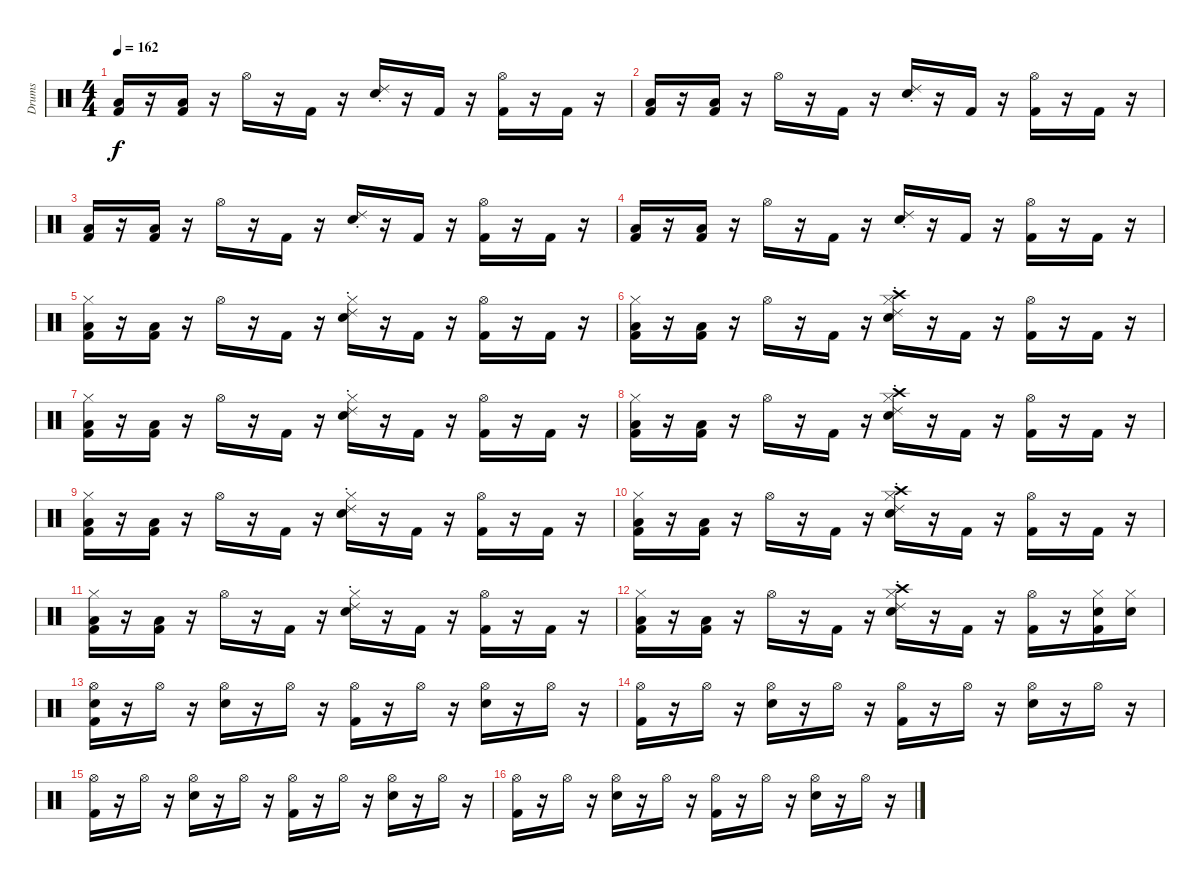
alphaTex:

\track ("Drums" "Drums") {instrument percussion}
\staff {score}
\articulation defaults
\ts (4 4)
\tempo 162
\clef neutral
\ks c
("Kick (hit) 2" "Low Floor Tom (hit)").16{dy f} r.16 ("Kick (hit) 2" "Low Floor Tom (hit)").16 r.16 "Hi-Hat (open)".16 r.16 "Kick (hit) 2".16 r.16 ("Electric Snare (hit)" "Ride (choke) 2").16 r.16 "Kick (hit) 2".16 r.16 ("Kick (hit) 2" "Hi-Hat (open)").16 r.16 "Kick (hit) 2".16 r.16 |
("Kick (hit) 2" "Low Floor Tom (hit)").16 r.16 ("Kick (hit) 2" "Low Floor Tom (hit)").16 r.16 "Hi-Hat (open)".16 r.16 "Kick (hit) 2".16 r.16 ("Electric Snare (hit)" "Ride (choke) 2").16 r.16 "Kick (hit) 2".16 r.16 ("Kick (hit) 2" "Hi-Hat (open)").16 r.16 "Kick (hit) 2".16 r.16 |
("Kick (hit) 2" "Low Floor Tom (hit)").16 r.16 ("Kick (hit) 2" "Low Floor Tom (hit)").16 r.16 "Hi-Hat (open)".16 r.16 "Kick (hit) 2".16 r.16 ("Electric Snare (hit)" "Ride (choke) 2").16 r.16 "Kick (hit) 2".16 r.16 ("Kick (hit) 2" "Hi-Hat (open)").16 r.16 "Kick (hit) 2".16 r.16 |
("Kick (hit) 2" "Low Floor Tom (hit)").16 r.16 ("Kick (hit) 2" "Low Floor Tom (hit)").16 r.16 "Hi-Hat (open)".16 r.16 "Kick (hit) 2".16 r.16 ("Electric Snare (hit)" "Ride (choke) 2").16 r.16 "Kick (hit) 2".16 r.16 ("Kick (hit) 2" "Hi-Hat (open)").16 r.16 "Kick (hit) 2".16 r.16 |
("Kick (hit) 2" "Low Floor Tom (hit)" "Hi-Hat (closed)").16 r.16 ("Kick (hit) 2" "Low Floor Tom (hit)").16 r.16 "Hi-Hat (open)".16 r.16 "Kick (hit) 2".16 r.16 ("Electric Snare (hit)" "Ride (choke) 2" "Hi-Hat (closed)").16 r.16 "Kick (hit) 2".16 r.16 ("Kick (hit) 2" "Hi-Hat (open)").16 r.16 "Kick (hit) 2".16 r.16 |
("Kick (hit) 2" "Low Floor Tom (hit)" "Hi-Hat (closed)").16 r.16 ("Kick (hit) 2" "Low Floor Tom (hit)").16 r.16 "Hi-Hat (open)".16 r.16 "Kick (hit) 2".16 r.16 ("Electric Snare (hit)" "Ride (choke) 2" "Hi-Hat (closed)" "Crash high (hit)").16 r.16 "Kick (hit) 2".16 r.16 ("Kick (hit) 2" "Hi-Hat (open)").16 r.16 "Kick (hit) 2".16 r.16 |
("Kick (hit) 2" "Low Floor Tom (hit)" "Hi-Hat (closed)").16 r.16 ("Kick (hit) 2" "Low Floor Tom (hit)").16 r.16 "Hi-Hat (open)".16 r.16 "Kick (hit) 2".16 r.16 ("Electric Snare (hit)" "Ride (choke) 2" "Hi-Hat (closed)").16 r.16 "Kick (hit) 2".16 r.16 ("Kick (hit) 2" "Hi-Hat (open)").16 r.16 "Kick (hit) 2".16 r.16 |
("Kick (hit) 2" "Low Floor Tom (hit)" "Hi-Hat (closed)").16 r.16 ("Kick (hit) 2" "Low Floor Tom (hit)").16 r.16 "Hi-Hat (open)".16 r.16 "Kick (hit) 2".16 r.16 ("Electric Snare (hit)" "Ride (choke) 2" "Hi-Hat (closed)" "Crash high (hit)").16 r.16 "Kick (hit) 2".16 r.16 ("Kick (hit) 2" "Hi-Hat (open)").16 r.16 "Kick (hit) 2".16 r.16 |
("Kick (hit) 2" "Low Floor Tom (hit)" "Hi-Hat (closed)").16 r.16 ("Kick (hit) 2" "Low Floor Tom (hit)").16 r.16 "Hi-Hat (open)".16 r.16 "Kick (hit) 2".16 r.16 ("Electric Snare (hit)" "Ride (choke) 2" "Hi-Hat (closed)").16 r.16 "Kick (hit) 2".16 r.16 ("Kick (hit) 2" "Hi-Hat (open)").16 r.16 "Kick (hit) 2".16 r.16 |
("Kick (hit) 2" "Low Floor Tom (hit)" "Hi-Hat (closed)").16 r.16 ("Kick (hit) 2" "Low Floor Tom (hit)").16 r.16 "Hi-Hat (open)".16 r.16 "Kick (hit) 2".16 r.16 ("Electric Snare (hit)" "Ride (choke) 2" "Hi-Hat (closed)" "Crash high (hit)").16 r.16 "Kick (hit) 2".16 r.16 ("Kick (hit) 2" "Hi-Hat (open)").16 r.16 "Kick (hit) 2".16 r.16 |
("Kick (hit) 2" "Low Floor Tom (hit)" "Hi-Hat (closed)").16 r.16 ("Kick (hit) 2" "Low Floor Tom (hit)").16 r.16 "Hi-Hat (open)".16 r.16 "Kick (hit) 2".16 r.16 ("Electric Snare (hit)" "Ride (choke) 2" "Hi-Hat (closed)").16 r.16 "Kick (hit) 2".16 r.16 ("Kick (hit) 2" "Hi-Hat (open)").16 r.16 "Kick (hit) 2".16 r.16 |
("Kick (hit) 2" "Low Floor Tom (hit)" "Hi-Hat (closed)").16 r.16 ("Kick (hit) 2" "Low Floor Tom (hit)").16 r.16 "Hi-Hat (open)".16 r.16 "Kick (hit) 2".16 r.16 ("Electric Snare (hit)" "Ride (choke) 2" "Hi-Hat (closed)" "Crash high (hit)").16 r.16 "Kick (hit) 2".16 r.16 ("Kick (hit) 2" "Hi-Hat (open)").16 r.16 ("Kick (hit) 2" "Electric Snare (hit)" "Hi-Hat (closed)").16 ("Electric Snare (hit)" "Hi-Hat (closed)").16 |
("Snare (hit)" "Kick (hit) 2" "Hi-Hat (open)").16 r.16 "Hi-Hat (open)".16 r.16 ("Electric Snare (hit)" "Hi-Hat (open)").16 r.16 "Hi-Hat (open)".16 r.16 ("Hi-Hat (open)" "Kick (hit) 2").16 r.16 "Hi-Hat (open)".16 r.16 ("Hi-Hat (open)" "Electric Snare (hit)").16 r.16 "Hi-Hat (open)".16 r.16 |
("Kick (hit) 2" "Hi-Hat (open)").16 r.16 "Hi-Hat (open)".16 r.16 ("Electric Snare (hit)" "Hi-Hat (open)").16 r.16 "Hi-Hat (open)".16 r.16 ("Hi-Hat (open)" "Kick (hit) 2").16 r.16 "Hi-Hat (open)".16 r.16 ("Hi-Hat (open)" "Electric Snare (hit)").16 r.16 "Hi-Hat (open)".16 r.16 |
("Kick (hit) 2" "Hi-Hat (open)").16 r.16 "Hi-Hat (open)".16 r.16 ("Electric Snare (hit)" "Hi-Hat (open)").16 r.16 "Hi-Hat (open)".16 r.16 ("Hi-Hat (open)" "Kick (hit) 2").16 r.16 "Hi-Hat (open)".16 r.16 ("Hi-Hat (open)" "Electric Snare (hit)").16 r.16 "Hi-Hat (open)".16 r.16 |
("Kick (hit) 2" "Hi-Hat (open)").16 r.16 "Hi-Hat (open)".16 r.16 ("Electric Snare (hit)" "Hi-Hat (open)").16 r.16 "Hi-Hat (open)".16 r.16 ("Hi-Hat (open)" "Kick (hit) 2").16 r.16 "Hi-Hat (open)".16 r.16 ("Hi-Hat (open)" "Electric Snare (hit)").16 r.16 "Hi-Hat (open)".16 r.16
